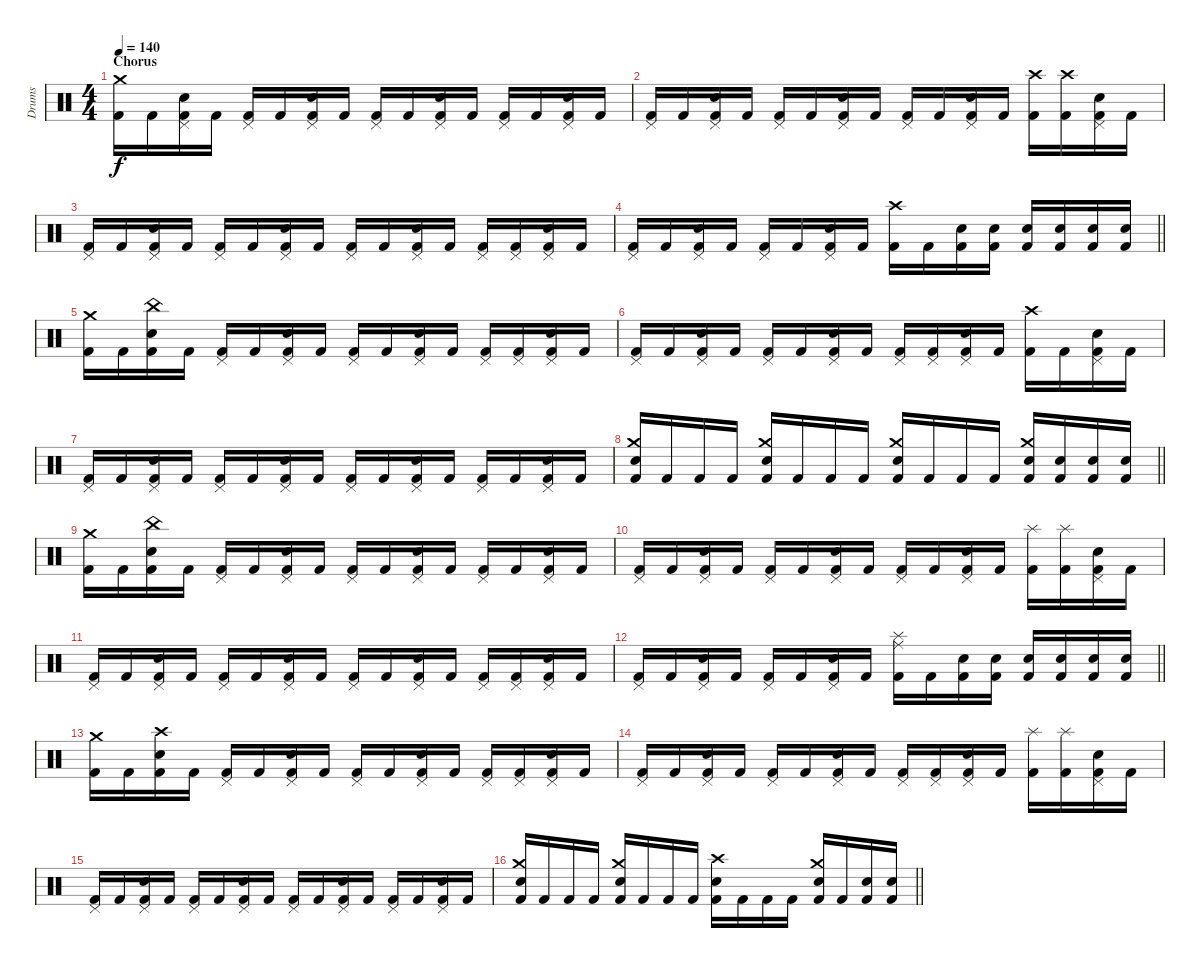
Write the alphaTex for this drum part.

\track ("Drums" "Drums") {instrument percussion}
\staff {score}
\articulation defaults
\ts (4 4)
\section ("" "Chorus")
\tempo 140
\clef neutral
\ks c
("Kick (hit) 2" "Crash medium (hit)").16{dy f} "Kick (hit) 2".16 ("Kick (hit) 2" "Snare (hit) 2" "Pedal Hi-Hat (hit)").16 "Kick (hit) 2".16 ("Kick (hit) 2" "Pedal Hi-Hat (hit)").16 "Kick (hit) 2".16 ("Kick (hit) 2" "Snare (hit) 2" "Pedal Hi-Hat (hit)").16 "Kick (hit) 2".16 ("Kick (hit) 2" "Pedal Hi-Hat (hit)").16 "Kick (hit) 2".16 ("Kick (hit) 2" "Snare (hit) 2" "Pedal Hi-Hat (hit)").16 "Kick (hit) 2".16 ("Kick (hit) 2" "Pedal Hi-Hat (hit)").16 "Kick (hit) 2".16 ("Kick (hit) 2" "Snare (hit) 2" "Pedal Hi-Hat (hit)").16 "Kick (hit) 2".16 |
("Kick (hit) 2" "Pedal Hi-Hat (hit)").16 "Kick (hit) 2".16 ("Kick (hit) 2" "Snare (hit) 2" "Pedal Hi-Hat (hit)").16 "Kick (hit) 2".16 ("Kick (hit) 2" "Pedal Hi-Hat (hit)").16 "Kick (hit) 2".16 ("Kick (hit) 2" "Snare (hit) 2" "Pedal Hi-Hat (hit)").16 "Kick (hit) 2".16 ("Kick (hit) 2" "Pedal Hi-Hat (hit)").16 "Kick (hit) 2".16 ("Kick (hit) 2" "Snare (hit) 2" "Pedal Hi-Hat (hit)").16 "Kick (hit) 2".16 ("Kick (hit) 2" "Crash high (hit)").16 ("Kick (hit) 2" "Crash high (hit)").16 ("Kick (hit) 2" "Snare (hit) 2" "Pedal Hi-Hat (hit)").16 "Kick (hit) 2".16 |
("Kick (hit) 2" "Pedal Hi-Hat (hit)").16 "Kick (hit) 2".16 ("Kick (hit) 2" "Snare (hit) 2" "Pedal Hi-Hat (hit)").16 "Kick (hit) 2".16 ("Kick (hit) 2" "Pedal Hi-Hat (hit)").16 "Kick (hit) 2".16 ("Kick (hit) 2" "Snare (hit) 2" "Pedal Hi-Hat (hit)").16 "Kick (hit) 2".16 ("Kick (hit) 2" "Pedal Hi-Hat (hit)").16 "Kick (hit) 2".16 ("Kick (hit) 2" "Snare (hit) 2" "Pedal Hi-Hat (hit)").16 "Kick (hit) 2".16 ("Kick (hit) 2" "Pedal Hi-Hat (hit)").16 ("Kick (hit) 2" "Pedal Hi-Hat (hit)").16 ("Kick (hit) 2" "Snare (hit) 2" "Pedal Hi-Hat (hit)").16 "Kick (hit) 2".16 |
\barLineRight lightlight
("Kick (hit) 2" "Pedal Hi-Hat (hit)").16 "Kick (hit) 2".16 ("Kick (hit) 2" "Snare (hit) 2" "Pedal Hi-Hat (hit)").16 "Kick (hit) 2".16 ("Kick (hit) 2" "Pedal Hi-Hat (hit)").16 "Kick (hit) 2".16 ("Kick (hit) 2" "Snare (hit) 2" "Pedal Hi-Hat (hit)").16 "Kick (hit) 2".16 ("Kick (hit) 2" "Crash high (hit)").16 "Kick (hit) 2".16 ("Kick (hit) 2" "Snare (hit) 2").16 ("Kick (hit) 2" "Snare (hit) 2").16 ("Kick (hit) 2" "Snare (hit) 2").16 ("Kick (hit) 2" "Snare (hit) 2").16 ("Kick (hit) 2" "Snare (hit) 2").16 ("Kick (hit) 2" "Snare (hit) 2").16 |
\section ("" "")
("Kick (hit) 2" "Crash medium (hit)").16 "Kick (hit) 2".16 ("Kick (hit) 2" "Snare (hit) 2" "China (hit)").16 "Kick (hit) 2".16 ("Kick (hit) 2" "Pedal Hi-Hat (hit)").16 "Kick (hit) 2".16 ("Kick (hit) 2" "Snare (hit) 2" "Pedal Hi-Hat (hit)").16 "Kick (hit) 2".16 ("Kick (hit) 2" "Pedal Hi-Hat (hit)").16 "Kick (hit) 2".16 ("Kick (hit) 2" "Snare (hit) 2" "Pedal Hi-Hat (hit)").16 "Kick (hit) 2".16 ("Kick (hit) 2" "Pedal Hi-Hat (hit)").16 ("Kick (hit) 2" "Pedal Hi-Hat (hit)").16 ("Kick (hit) 2" "Snare (hit) 2" "Pedal Hi-Hat (hit)").16 "Kick (hit) 2".16 |
("Kick (hit) 2" "Pedal Hi-Hat (hit)").16 "Kick (hit) 2".16 ("Kick (hit) 2" "Snare (hit) 2" "Pedal Hi-Hat (hit)").16 "Kick (hit) 2".16 ("Kick (hit) 2" "Pedal Hi-Hat (hit)").16 "Kick (hit) 2".16 ("Kick (hit) 2" "Snare (hit) 2" "Pedal Hi-Hat (hit)").16 "Kick (hit) 2".16 ("Kick (hit) 2" "Pedal Hi-Hat (hit)").16 ("Kick (hit) 2" "Pedal Hi-Hat (hit)").16 ("Kick (hit) 2" "Snare (hit) 2" "Pedal Hi-Hat (hit)").16 "Kick (hit) 2".16 ("Kick (hit) 2" "Crash high (hit)").16 "Kick (hit) 2".16 ("Kick (hit) 2" "Snare (hit) 2" "Pedal Hi-Hat (hit)").16 "Kick (hit) 2".16 |
("Kick (hit) 2" "Pedal Hi-Hat (hit)").16 "Kick (hit) 2".16 ("Kick (hit) 2" "Snare (hit) 2" "Pedal Hi-Hat (hit)").16 "Kick (hit) 2".16 ("Kick (hit) 2" "Pedal Hi-Hat (hit)").16 "Kick (hit) 2".16 ("Kick (hit) 2" "Snare (hit) 2" "Pedal Hi-Hat (hit)").16 "Kick (hit) 2".16 ("Kick (hit) 2" "Pedal Hi-Hat (hit)").16 "Kick (hit) 2".16 ("Kick (hit) 2" "Snare (hit) 2" "Pedal Hi-Hat (hit)").16 "Kick (hit) 2".16 ("Kick (hit) 2" "Pedal Hi-Hat (hit)").16 "Kick (hit) 2".16 ("Kick (hit) 2" "Snare (hit) 2" "Pedal Hi-Hat (hit)").16 "Kick (hit) 2".16 |
\barLineRight lightlight
("Kick (hit) 2" "Snare (hit) 2" "Crash medium (hit)").16 "Kick (hit) 2".16 "Kick (hit) 2".16 "Kick (hit) 2".16 ("Kick (hit) 2" "Snare (hit) 2" "Crash medium (hit)").16 "Kick (hit) 2".16 "Kick (hit) 2".16 "Kick (hit) 2".16 ("Kick (hit) 2" "Snare (hit) 2" "Crash medium (hit)").16 "Kick (hit) 2".16 "Kick (hit) 2".16 "Kick (hit) 2".16 ("Kick (hit) 2" "Snare (hit) 2" "Crash medium (hit)").16 ("Kick (hit) 2" "Snare (hit) 2").16 ("Kick (hit) 2" "Snare (hit) 2").16 ("Kick (hit) 2" "Snare (hit) 2").16 |
\section ("" "")
("Kick (hit) 2" "Crash medium (hit)").16 "Kick (hit) 2".16 ("Kick (hit) 2" "Snare (hit) 2" "China (hit)").16 "Kick (hit) 2".16 ("Kick (hit) 2" "Pedal Hi-Hat (hit)").16 "Kick (hit) 2".16 ("Kick (hit) 2" "Snare (hit) 2" "Pedal Hi-Hat (hit)").16 "Kick (hit) 2".16 ("Kick (hit) 2" "Pedal Hi-Hat (hit)").16 "Kick (hit) 2".16 ("Kick (hit) 2" "Snare (hit) 2" "Pedal Hi-Hat (hit)").16 "Kick (hit) 2".16 ("Kick (hit) 2" "Pedal Hi-Hat (hit)").16 "Kick (hit) 2".16 ("Kick (hit) 2" "Snare (hit) 2" "Pedal Hi-Hat (hit)").16 "Kick (hit) 2".16 |
("Kick (hit) 2" "Pedal Hi-Hat (hit)").16 "Kick (hit) 2".16 ("Kick (hit) 2" "Snare (hit) 2" "Pedal Hi-Hat (hit)").16 "Kick (hit) 2".16 ("Kick (hit) 2" "Pedal Hi-Hat (hit)").16 "Kick (hit) 2".16 ("Kick (hit) 2" "Snare (hit) 2" "Pedal Hi-Hat (hit)").16 "Kick (hit) 2".16 ("Kick (hit) 2" "Pedal Hi-Hat (hit)").16 "Kick (hit) 2".16 ("Kick (hit) 2" "Snare (hit) 2" "Pedal Hi-Hat (hit)").16 "Kick (hit) 2".16 ("Kick (hit) 2" "Splash (hit)").16 ("Kick (hit) 2" "Splash (hit)").16 ("Kick (hit) 2" "Snare (hit) 2" "Pedal Hi-Hat (hit)").16 "Kick (hit) 2".16 |
("Kick (hit) 2" "Pedal Hi-Hat (hit)").16 "Kick (hit) 2".16 ("Kick (hit) 2" "Snare (hit) 2" "Pedal Hi-Hat (hit)").16 "Kick (hit) 2".16 ("Kick (hit) 2" "Pedal Hi-Hat (hit)").16 "Kick (hit) 2".16 ("Kick (hit) 2" "Snare (hit) 2" "Pedal Hi-Hat (hit)").16 "Kick (hit) 2".16 ("Kick (hit) 2" "Pedal Hi-Hat (hit)").16 "Kick (hit) 2".16 ("Kick (hit) 2" "Snare (hit) 2" "Pedal Hi-Hat (hit)").16 "Kick (hit) 2".16 ("Kick (hit) 2" "Pedal Hi-Hat (hit)").16 ("Kick (hit) 2" "Pedal Hi-Hat (hit)").16 ("Kick (hit) 2" "Snare (hit) 2" "Pedal Hi-Hat (hit)").16 "Kick (hit) 2".16 |
\barLineRight lightlight
("Kick (hit) 2" "Pedal Hi-Hat (hit)").16 "Kick (hit) 2".16 ("Kick (hit) 2" "Snare (hit) 2" "Pedal Hi-Hat (hit)").16 "Kick (hit) 2".16 ("Kick (hit) 2" "Pedal Hi-Hat (hit)").16 "Kick (hit) 2".16 ("Kick (hit) 2" "Snare (hit) 2" "Pedal Hi-Hat (hit)").16 "Kick (hit) 2".16 ("Kick (hit) 2" "Ride (middle)" "Splash (hit)").16 "Kick (hit) 2".16 ("Kick (hit) 2" "Snare (hit) 2").16 ("Kick (hit) 2" "Snare (hit) 2").16 ("Kick (hit) 2" "Snare (hit) 2").16 ("Kick (hit) 2" "Snare (hit) 2").16 ("Kick (hit) 2" "Snare (hit) 2").16 ("Kick (hit) 2" "Snare (hit) 2").16 |
\section ("" "")
("Kick (hit) 2" "Crash medium (hit)").16 "Kick (hit) 2".16 ("Kick (hit) 2" "Snare (hit) 2" "Crash high (hit)").16 "Kick (hit) 2".16 ("Kick (hit) 2" "Pedal Hi-Hat (hit)").16 "Kick (hit) 2".16 ("Kick (hit) 2" "Snare (hit) 2" "Pedal Hi-Hat (hit)").16 "Kick (hit) 2".16 ("Kick (hit) 2" "Pedal Hi-Hat (hit)").16 "Kick (hit) 2".16 ("Kick (hit) 2" "Snare (hit) 2" "Pedal Hi-Hat (hit)").16 "Kick (hit) 2".16 ("Kick (hit) 2" "Pedal Hi-Hat (hit)").16 ("Kick (hit) 2" "Pedal Hi-Hat (hit)").16 ("Kick (hit) 2" "Snare (hit) 2" "Pedal Hi-Hat (hit)").16 "Kick (hit) 2".16 |
("Kick (hit) 2" "Pedal Hi-Hat (hit)").16 "Kick (hit) 2".16 ("Kick (hit) 2" "Snare (hit) 2" "Pedal Hi-Hat (hit)").16 "Kick (hit) 2".16 ("Kick (hit) 2" "Pedal Hi-Hat (hit)").16 "Kick (hit) 2".16 ("Kick (hit) 2" "Snare (hit) 2" "Pedal Hi-Hat (hit)").16 "Kick (hit) 2".16 ("Kick (hit) 2" "Pedal Hi-Hat (hit)").16 ("Kick (hit) 2" "Pedal Hi-Hat (hit)").16 ("Kick (hit) 2" "Snare (hit) 2" "Pedal Hi-Hat (hit)").16 "Kick (hit) 2".16 ("Kick (hit) 2" "Splash (hit)").16 ("Kick (hit) 2" "Splash (hit)").16 ("Kick (hit) 2" "Snare (hit) 2" "Pedal Hi-Hat (hit)").16 "Kick (hit) 2".16 |
("Kick (hit) 2" "Pedal Hi-Hat (hit)").16 "Kick (hit) 2".16 ("Kick (hit) 2" "Snare (hit) 2" "Pedal Hi-Hat (hit)").16 "Kick (hit) 2".16 ("Kick (hit) 2" "Pedal Hi-Hat (hit)").16 "Kick (hit) 2".16 ("Kick (hit) 2" "Snare (hit) 2" "Pedal Hi-Hat (hit)").16 "Kick (hit) 2".16 ("Kick (hit) 2" "Pedal Hi-Hat (hit)").16 "Kick (hit) 2".16 ("Kick (hit) 2" "Snare (hit) 2" "Pedal Hi-Hat (hit)").16 "Kick (hit) 2".16 ("Kick (hit) 2" "Pedal Hi-Hat (hit)").16 "Kick (hit) 2".16 ("Kick (hit) 2" "Snare (hit) 2" "Pedal Hi-Hat (hit)").16 "Kick (hit) 2".16 |
\barLineRight lightlight
("Kick (hit) 2" "Snare (hit) 2" "Crash medium (hit)").16 "Kick (hit) 2".16 "Kick (hit) 2".16 "Kick (hit) 2".16 ("Kick (hit) 2" "Snare (hit) 2" "Crash medium (hit)").16 "Kick (hit) 2".16 "Kick (hit) 2".16 "Kick (hit) 2".16 ("Kick (hit) 2" "Snare (hit) 2" "Crash high (hit)").16 "Kick (hit) 2".16 "Kick (hit) 2".16 "Kick (hit) 2".16 ("Kick (hit) 2" "Snare (hit) 2" "Crash medium (hit)").16 "Kick (hit) 2".16 ("Kick (hit) 2" "Snare (hit) 2").16 ("Kick (hit) 2" "Snare (hit) 2").16
